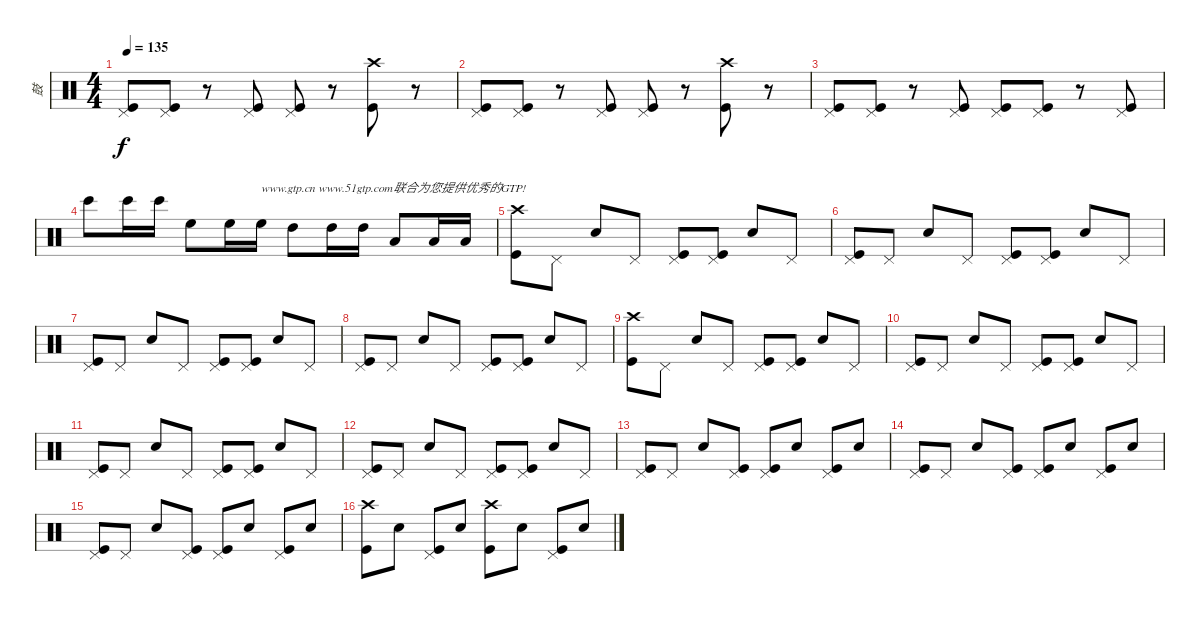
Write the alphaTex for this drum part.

\track ("鼓" "鼓") {instrument percussion}
\staff {score}
\articulation defaults
\ts (4 4)
\tempo 135
\clef neutral
\ks c
("Pedal Hi-Hat (hit)" "Kick (hit)").8{dy f} ("Pedal Hi-Hat (hit)" "Kick (hit)").8 r.8 ("Pedal Hi-Hat (hit)" "Kick (hit)").8 ("Pedal Hi-Hat (hit)" "Kick (hit)").8 r.8 ("Crash high (hit)" "Kick (hit)").8 r.8 |
("Pedal Hi-Hat (hit)" "Kick (hit)").8 ("Pedal Hi-Hat (hit)" "Kick (hit)").8 r.8 ("Pedal Hi-Hat (hit)" "Kick (hit)").8 ("Pedal Hi-Hat (hit)" "Kick (hit)").8 r.8 ("Crash high (hit)" "Kick (hit)").8 r.8 |
("Pedal Hi-Hat (hit)" "Kick (hit)").8 ("Pedal Hi-Hat (hit)" "Kick (hit)").8 r.8 ("Pedal Hi-Hat (hit)" "Kick (hit)").8 ("Pedal Hi-Hat (hit)" "Kick (hit)").8 ("Pedal Hi-Hat (hit)" "Kick (hit)").8 r.8 ("Pedal Hi-Hat (hit)" "Kick (hit)").8 |
"Bongo High (hit)".8 "Bongo High (hit)".16 "Bongo High (hit)".16 "High Floor Tom (hit)".8 "High Floor Tom (hit)".16 "High Floor Tom (hit)".16{txt "www.gtp.cn www.51gtp.com联合为您提供优秀的GTP!"} "High Tom (hit)".8 "High Tom (hit)".16 "High Tom (hit)".16 "Low Tom (hit)".8 "Low Tom (hit)".16 "Low Tom (hit)".16 |
("Crash high (hit)" "Kick (hit)").8 "Pedal Hi-Hat (hit)".8 "Snare (hit) 2".8 "Pedal Hi-Hat (hit)".8 ("Pedal Hi-Hat (hit)" "Kick (hit)").8 ("Pedal Hi-Hat (hit)" "Kick (hit)").8 "Snare (hit) 2".8 "Pedal Hi-Hat (hit)".8 |
("Pedal Hi-Hat (hit)" "Kick (hit)").8 "Pedal Hi-Hat (hit)".8 "Snare (hit) 2".8 "Pedal Hi-Hat (hit)".8 ("Pedal Hi-Hat (hit)" "Kick (hit)").8 ("Pedal Hi-Hat (hit)" "Kick (hit)").8 "Snare (hit) 2".8 "Pedal Hi-Hat (hit)".8 |
("Pedal Hi-Hat (hit)" "Kick (hit)").8 "Pedal Hi-Hat (hit)".8 "Snare (hit) 2".8 "Pedal Hi-Hat (hit)".8 ("Pedal Hi-Hat (hit)" "Kick (hit)").8 ("Pedal Hi-Hat (hit)" "Kick (hit)").8 "Snare (hit) 2".8 "Pedal Hi-Hat (hit)".8 |
("Pedal Hi-Hat (hit)" "Kick (hit)").8 "Pedal Hi-Hat (hit)".8 "Snare (hit) 2".8 "Pedal Hi-Hat (hit)".8 ("Pedal Hi-Hat (hit)" "Kick (hit)").8 ("Pedal Hi-Hat (hit)" "Kick (hit)").8 "Snare (hit) 2".8 "Pedal Hi-Hat (hit)".8 |
("Crash high (hit)" "Kick (hit)").8 "Pedal Hi-Hat (hit)".8 "Snare (hit) 2".8 "Pedal Hi-Hat (hit)".8 ("Pedal Hi-Hat (hit)" "Kick (hit)").8 ("Pedal Hi-Hat (hit)" "Kick (hit)").8 "Snare (hit) 2".8 "Pedal Hi-Hat (hit)".8 |
("Pedal Hi-Hat (hit)" "Kick (hit)").8 "Pedal Hi-Hat (hit)".8 "Snare (hit) 2".8 "Pedal Hi-Hat (hit)".8 ("Pedal Hi-Hat (hit)" "Kick (hit)").8 ("Pedal Hi-Hat (hit)" "Kick (hit)").8 "Snare (hit) 2".8 "Pedal Hi-Hat (hit)".8 |
("Pedal Hi-Hat (hit)" "Kick (hit)").8 "Pedal Hi-Hat (hit)".8 "Snare (hit) 2".8 "Pedal Hi-Hat (hit)".8 ("Pedal Hi-Hat (hit)" "Kick (hit)").8 ("Pedal Hi-Hat (hit)" "Kick (hit)").8 "Snare (hit) 2".8 "Pedal Hi-Hat (hit)".8 |
("Pedal Hi-Hat (hit)" "Kick (hit)").8 "Pedal Hi-Hat (hit)".8 "Snare (hit) 2".8 "Pedal Hi-Hat (hit)".8 ("Pedal Hi-Hat (hit)" "Kick (hit)").8 ("Pedal Hi-Hat (hit)" "Kick (hit)").8 "Snare (hit) 2".8 "Pedal Hi-Hat (hit)".8 |
("Pedal Hi-Hat (hit)" "Kick (hit)").8 "Pedal Hi-Hat (hit)".8 "Snare (hit) 2".8 ("Pedal Hi-Hat (hit)" "Kick (hit)").8 ("Pedal Hi-Hat (hit)" "Kick (hit)").8 "Snare (hit) 2".8 ("Pedal Hi-Hat (hit)" "Kick (hit)").8 "Snare (hit) 2".8 |
("Pedal Hi-Hat (hit)" "Kick (hit)").8 "Pedal Hi-Hat (hit)".8 "Snare (hit) 2".8 ("Pedal Hi-Hat (hit)" "Kick (hit)").8 ("Pedal Hi-Hat (hit)" "Kick (hit)").8 "Snare (hit) 2".8 ("Pedal Hi-Hat (hit)" "Kick (hit)").8 "Snare (hit) 2".8 |
("Pedal Hi-Hat (hit)" "Kick (hit)").8 "Pedal Hi-Hat (hit)".8 "Snare (hit) 2".8 ("Pedal Hi-Hat (hit)" "Kick (hit)").8 ("Pedal Hi-Hat (hit)" "Kick (hit)").8 "Snare (hit) 2".8 ("Pedal Hi-Hat (hit)" "Kick (hit)").8 "Snare (hit) 2".8 |
("Crash high (hit)" "Kick (hit)").8 "Snare (hit) 2".8 ("Pedal Hi-Hat (hit)" "Kick (hit)").8 "Snare (hit) 2".8 ("Crash high (hit)" "Kick (hit)").8 "Snare (hit) 2".8 ("Pedal Hi-Hat (hit)" "Kick (hit)").8 "Snare (hit) 2".8
